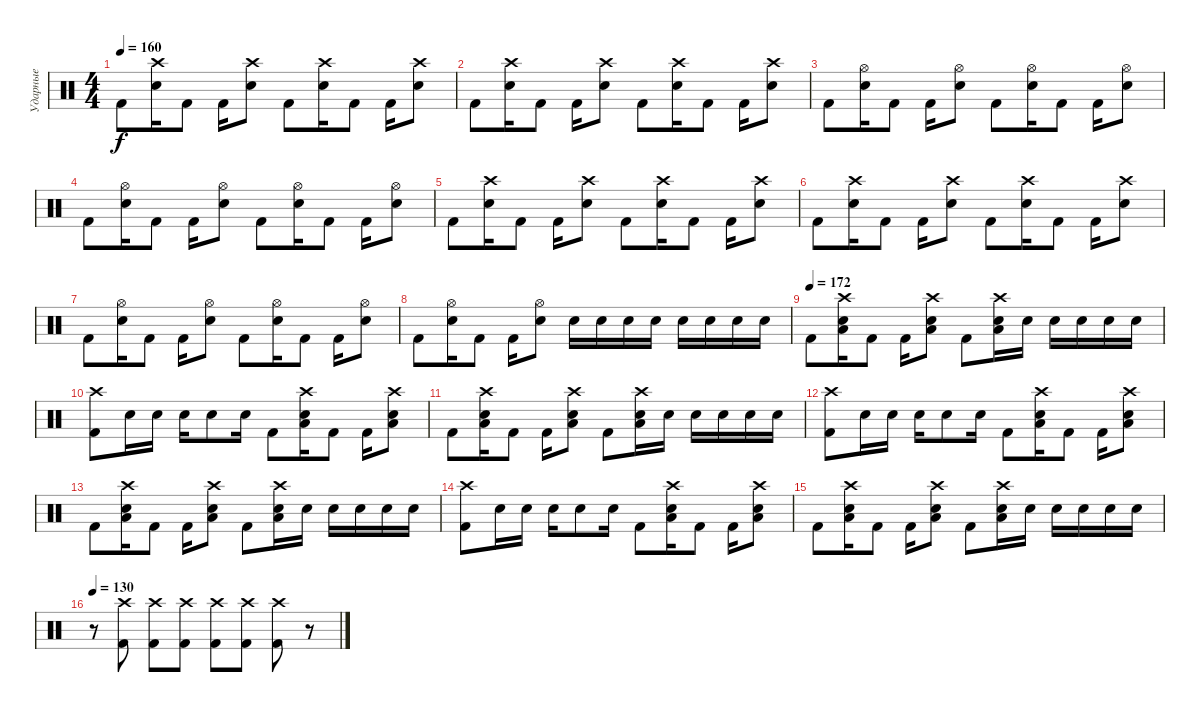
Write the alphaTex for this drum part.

\track ("Ударные" "Ударные") {instrument percussion}
\staff {score}
\articulation defaults
\ts (4 4)
\tempo 160
\clef neutral
\ks c "Kick (hit) 2".8{dy f}
("Crash high (hit)" "Electric Snare (hit)").16 "Kick (hit) 2".8 "Kick (hit) 2".16 ("Crash high (hit)" "Electric Snare (hit)").8 "Kick (hit) 2".8 ("Crash high (hit)" "Electric Snare (hit)").16 "Kick (hit) 2".8 "Kick (hit) 2".16 ("Crash high (hit)" "Electric Snare (hit)").8 |
"Kick (hit) 2".8 ("Crash high (hit)" "Electric Snare (hit)").16 "Kick (hit) 2".8 "Kick (hit) 2".16 ("Crash high (hit)" "Electric Snare (hit)").8 "Kick (hit) 2".8 ("Crash high (hit)" "Electric Snare (hit)").16 "Kick (hit) 2".8 "Kick (hit) 2".16 ("Crash high (hit)" "Electric Snare (hit)").8 |
"Kick (hit) 2".8 ("Hi-Hat (open)" "Electric Snare (hit)").16 "Kick (hit) 2".8 "Kick (hit) 2".16 ("Hi-Hat (open)" "Electric Snare (hit)").8 "Kick (hit) 2".8 ("Hi-Hat (open)" "Electric Snare (hit)").16 "Kick (hit) 2".8 "Kick (hit) 2".16 ("Hi-Hat (open)" "Electric Snare (hit)").8 |
"Kick (hit) 2".8 ("Hi-Hat (open)" "Electric Snare (hit)").16 "Kick (hit) 2".8 "Kick (hit) 2".16 ("Hi-Hat (open)" "Electric Snare (hit)").8 "Kick (hit) 2".8 ("Hi-Hat (open)" "Electric Snare (hit)").16 "Kick (hit) 2".8 "Kick (hit) 2".16 ("Hi-Hat (open)" "Electric Snare (hit)").8 |
"Kick (hit) 2".8 ("Crash high (hit)" "Electric Snare (hit)").16 "Kick (hit) 2".8 "Kick (hit) 2".16 ("Crash high (hit)" "Electric Snare (hit)").8 "Kick (hit) 2".8 ("Crash high (hit)" "Electric Snare (hit)").16 "Kick (hit) 2".8 "Kick (hit) 2".16 ("Crash high (hit)" "Electric Snare (hit)").8 |
"Kick (hit) 2".8 ("Crash high (hit)" "Electric Snare (hit)").16 "Kick (hit) 2".8 "Kick (hit) 2".16 ("Crash high (hit)" "Electric Snare (hit)").8 "Kick (hit) 2".8 ("Crash high (hit)" "Electric Snare (hit)").16 "Kick (hit) 2".8 "Kick (hit) 2".16 ("Crash high (hit)" "Electric Snare (hit)").8 |
"Kick (hit) 2".8 ("Hi-Hat (open)" "Electric Snare (hit)").16 "Kick (hit) 2".8 "Kick (hit) 2".16 ("Hi-Hat (open)" "Electric Snare (hit)").8 "Kick (hit) 2".8 ("Hi-Hat (open)" "Electric Snare (hit)").16 "Kick (hit) 2".8 "Kick (hit) 2".16 ("Hi-Hat (open)" "Electric Snare (hit)").8 |
"Kick (hit) 2".8 ("Hi-Hat (open)" "Electric Snare (hit)").16 "Kick (hit) 2".8 "Kick (hit) 2".16 ("Hi-Hat (open)" "Electric Snare (hit)").8 "Electric Snare (hit)".16 "Electric Snare (hit)".16 "Electric Snare (hit)".16 "Electric Snare (hit)".16 "Electric Snare (hit)".16 "Electric Snare (hit)".16 "Electric Snare (hit)".16 "Electric Snare (hit)".16 |
\tempo (172)
"Kick (hit) 2".8 ("Low Floor Tom (hit)" "Crash high (hit)" "Electric Snare (hit)").16 "Kick (hit) 2".8 "Kick (hit) 2".16 ("Low Floor Tom (hit)" "Crash high (hit)" "Electric Snare (hit)").8 "Kick (hit) 2".8 ("Low Floor Tom (hit)" "Crash high (hit)" "Electric Snare (hit)").16 "Electric Snare (hit)".16 "Electric Snare (hit)".16 "Electric Snare (hit)".16 "Electric Snare (hit)".16 "Electric Snare (hit)".16 |
("Crash high (hit)" "Kick (hit) 2").8 "Electric Snare (hit)".16 "Electric Snare (hit)".16 "Electric Snare (hit)".16 "Electric Snare (hit)".8 "Electric Snare (hit)".16 "Kick (hit) 2".8 ("Low Floor Tom (hit)" "Crash high (hit)" "Electric Snare (hit)").16 "Kick (hit) 2".8 "Kick (hit) 2".16 ("Low Floor Tom (hit)" "Crash high (hit)" "Electric Snare (hit)").8 |
"Kick (hit) 2".8 ("Low Floor Tom (hit)" "Crash high (hit)" "Electric Snare (hit)").16 "Kick (hit) 2".8 "Kick (hit) 2".16 ("Low Floor Tom (hit)" "Crash high (hit)" "Electric Snare (hit)").8 "Kick (hit) 2".8 ("Low Floor Tom (hit)" "Crash high (hit)" "Electric Snare (hit)").16 "Electric Snare (hit)".16 "Electric Snare (hit)".16 "Electric Snare (hit)".16 "Electric Snare (hit)".16 "Electric Snare (hit)".16 |
("Crash high (hit)" "Kick (hit) 2").8 "Electric Snare (hit)".16 "Electric Snare (hit)".16 "Electric Snare (hit)".16 "Electric Snare (hit)".8 "Electric Snare (hit)".16 "Kick (hit) 2".8 ("Low Floor Tom (hit)" "Crash high (hit)" "Electric Snare (hit)").16 "Kick (hit) 2".8 "Kick (hit) 2".16 ("Low Floor Tom (hit)" "Crash high (hit)" "Electric Snare (hit)").8 |
"Kick (hit) 2".8 ("Low Floor Tom (hit)" "Crash high (hit)" "Electric Snare (hit)").16 "Kick (hit) 2".8 "Kick (hit) 2".16 ("Low Floor Tom (hit)" "Crash high (hit)" "Electric Snare (hit)").8 "Kick (hit) 2".8 ("Low Floor Tom (hit)" "Crash high (hit)" "Electric Snare (hit)").16 "Electric Snare (hit)".16 "Electric Snare (hit)".16 "Electric Snare (hit)".16 "Electric Snare (hit)".16 "Electric Snare (hit)".16 |
("Crash high (hit)" "Kick (hit) 2").8 "Electric Snare (hit)".16 "Electric Snare (hit)".16 "Electric Snare (hit)".16 "Electric Snare (hit)".8 "Electric Snare (hit)".16 "Kick (hit) 2".8 ("Low Floor Tom (hit)" "Crash high (hit)" "Electric Snare (hit)").16 "Kick (hit) 2".8 "Kick (hit) 2".16 ("Low Floor Tom (hit)" "Crash high (hit)" "Electric Snare (hit)").8 |
"Kick (hit) 2".8 ("Low Floor Tom (hit)" "Crash high (hit)" "Electric Snare (hit)").16 "Kick (hit) 2".8 "Kick (hit) 2".16 ("Low Floor Tom (hit)" "Crash high (hit)" "Electric Snare (hit)").8 "Kick (hit) 2".8 ("Low Floor Tom (hit)" "Crash high (hit)" "Electric Snare (hit)").16 "Electric Snare (hit)".16 "Electric Snare (hit)".16 "Electric Snare (hit)".16 "Electric Snare (hit)".16 "Electric Snare (hit)".16 |
\tempo 130
r.8 ("Crash high (hit)" "Kick (hit) 2").8 ("Crash high (hit)" "Kick (hit) 2").8 ("Crash high (hit)" "Kick (hit) 2").8 ("Crash high (hit)" "Kick (hit) 2").8 ("Crash high (hit)" "Kick (hit) 2").8 ("Crash high (hit)" "Kick (hit) 2").8 r.8
